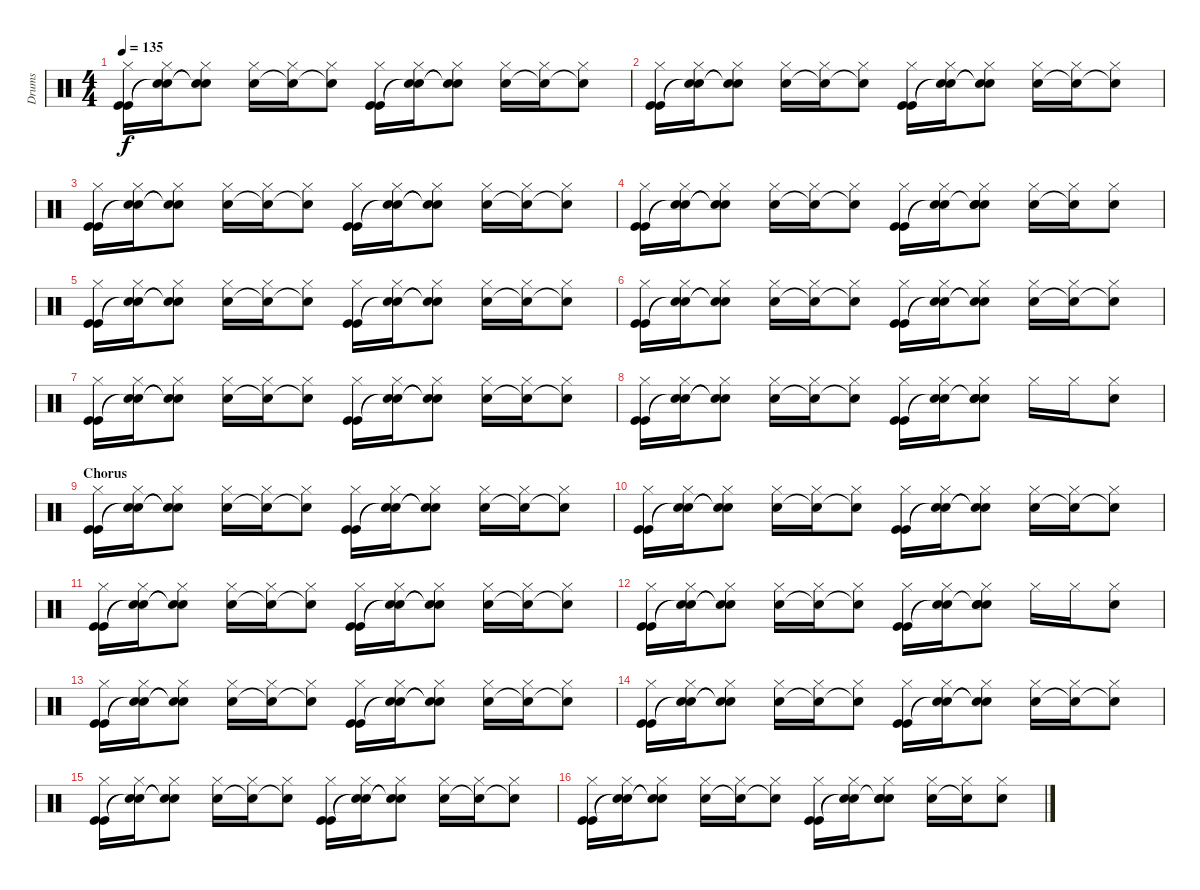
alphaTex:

\track ("Drums" "Drums") {instrument percussion}
\staff {score}
\articulation defaults
\ts (4 4)
\tempo 135
\clef neutral
\ks c
("Hi-Hat (closed)" "Kick (hit)" "Kick (hit)").16{dy f} ("Hi-Hat (closed)" "Snare (hit)"{t} "Snare (hit)"{t}).16 ("Hi-Hat (closed)" "Snare (hit)"{t} "Snare (hit)"{t}).8 ("Hi-Hat (closed)" "Snare (hit) 2").16 ("Hi-Hat (closed)" "Snare (hit)"{t}).16 ("Hi-Hat (closed)" "Snare (hit) 2"{t}).8 ("Hi-Hat (closed)" "Kick (hit)" "Kick (hit)").16 ("Hi-Hat (closed)" "Snare (hit)"{t} "Snare (hit)"{t}).16 ("Hi-Hat (closed)" "Snare (hit)"{t} "Snare (hit)"{t}).8 ("Hi-Hat (closed)" "Snare (hit) 2").16 ("Hi-Hat (closed)" "Snare (hit) 2"{t}).16 ("Hi-Hat (closed)" "Snare (hit)"{t}).8 |
("Hi-Hat (closed)" "Kick (hit)" "Kick (hit)").16 ("Hi-Hat (closed)" "Snare (hit)"{t} "Snare (hit)"{t}).16 ("Hi-Hat (closed)" "Snare (hit)"{t} "Snare (hit)"{t}).8 ("Hi-Hat (closed)" "Snare (hit) 2").16 ("Hi-Hat (closed)" "Snare (hit)"{t}).16 ("Hi-Hat (closed)" "Snare (hit) 2"{t}).8 ("Hi-Hat (closed)" "Kick (hit)" "Kick (hit)").16 ("Hi-Hat (closed)" "Snare (hit)"{t} "Snare (hit)"{t}).16 ("Hi-Hat (closed)" "Snare (hit)"{t} "Snare (hit)"{t}).8 ("Hi-Hat (closed)" "Snare (hit) 2").16 ("Hi-Hat (closed)" "Snare (hit) 2"{t}).16 ("Hi-Hat (closed)" "Snare (hit)"{t}).8 |
("Hi-Hat (closed)" "Kick (hit)" "Kick (hit)").16 ("Hi-Hat (closed)" "Snare (hit)"{t} "Snare (hit)"{t}).16 ("Hi-Hat (closed)" "Snare (hit)"{t} "Snare (hit)"{t}).8 ("Hi-Hat (closed)" "Snare (hit) 2").16 ("Hi-Hat (closed)" "Snare (hit)"{t}).16 ("Hi-Hat (closed)" "Snare (hit) 2"{t}).8 ("Hi-Hat (closed)" "Kick (hit)" "Kick (hit)").16 ("Hi-Hat (closed)" "Snare (hit)"{t} "Snare (hit)"{t}).16 ("Hi-Hat (closed)" "Snare (hit)"{t} "Snare (hit)"{t}).8 ("Hi-Hat (closed)" "Snare (hit) 2").16 ("Hi-Hat (closed)" "Snare (hit) 2"{t}).16 ("Hi-Hat (closed)" "Snare (hit)"{t}).8 |
("Hi-Hat (closed)" "Kick (hit)" "Kick (hit)").16 ("Hi-Hat (closed)" "Snare (hit)"{t} "Snare (hit)"{t}).16 ("Hi-Hat (closed)" "Snare (hit)"{t} "Snare (hit)"{t}).8 ("Hi-Hat (closed)" "Snare (hit) 2").16 ("Hi-Hat (closed)" "Snare (hit)"{t}).16 ("Hi-Hat (closed)" "Snare (hit) 2"{t}).8 ("Hi-Hat (closed)" "Kick (hit)" "Kick (hit)").16 ("Hi-Hat (closed)" "Snare (hit)"{t} "Snare (hit)"{t}).16 ("Hi-Hat (closed)" "Snare (hit) 2" "Snare (hit)"{t} "Snare (hit)").8 ("Hi-Hat (closed)" "Snare (hit) 2").16 ("Hi-Hat (closed)" "Snare (hit) 2"{t}).16 ("Hi-Hat (closed)" "Snare (hit) 2").8 |
("Hi-Hat (closed)" "Kick (hit)" "Kick (hit)").16 ("Hi-Hat (closed)" "Snare (hit)"{t} "Snare (hit)"{t}).16 ("Hi-Hat (closed)" "Snare (hit)"{t} "Snare (hit)"{t}).8 ("Hi-Hat (closed)" "Snare (hit) 2").16 ("Hi-Hat (closed)" "Snare (hit)"{t}).16 ("Hi-Hat (closed)" "Snare (hit) 2"{t}).8 ("Hi-Hat (closed)" "Kick (hit)" "Kick (hit)").16 ("Hi-Hat (closed)" "Snare (hit)"{t} "Snare (hit)"{t}).16 ("Hi-Hat (closed)" "Snare (hit)"{t} "Snare (hit)"{t}).8 ("Hi-Hat (closed)" "Snare (hit) 2").16 ("Hi-Hat (closed)" "Snare (hit) 2"{t}).16 ("Hi-Hat (closed)" "Snare (hit)"{t}).8 |
("Hi-Hat (closed)" "Kick (hit)" "Kick (hit)").16 ("Hi-Hat (closed)" "Snare (hit)"{t} "Snare (hit)"{t}).16 ("Hi-Hat (closed)" "Snare (hit)"{t} "Snare (hit)"{t}).8 ("Hi-Hat (closed)" "Snare (hit) 2").16 ("Hi-Hat (closed)" "Snare (hit)"{t}).16 ("Hi-Hat (closed)" "Snare (hit) 2"{t}).8 ("Hi-Hat (closed)" "Kick (hit)" "Kick (hit)").16 ("Hi-Hat (closed)" "Snare (hit)"{t} "Snare (hit)"{t}).16 ("Hi-Hat (closed)" "Snare (hit)"{t} "Snare (hit)"{t}).8 ("Hi-Hat (closed)" "Snare (hit) 2").16 ("Hi-Hat (closed)" "Snare (hit) 2"{t}).16 ("Hi-Hat (closed)" "Snare (hit)"{t}).8 |
("Hi-Hat (closed)" "Kick (hit)" "Kick (hit)").16 ("Hi-Hat (closed)" "Snare (hit)"{t} "Snare (hit)"{t}).16 ("Hi-Hat (closed)" "Snare (hit)"{t} "Snare (hit)"{t}).8 ("Hi-Hat (closed)" "Snare (hit) 2").16 ("Hi-Hat (closed)" "Snare (hit)"{t}).16 ("Hi-Hat (closed)" "Snare (hit) 2"{t}).8 ("Hi-Hat (closed)" "Kick (hit)" "Kick (hit)").16 ("Hi-Hat (closed)" "Snare (hit)"{t} "Snare (hit)"{t}).16 ("Hi-Hat (closed)" "Snare (hit)"{t} "Snare (hit)"{t}).8 ("Hi-Hat (closed)" "Snare (hit) 2").16 ("Hi-Hat (closed)" "Snare (hit) 2"{t}).16 ("Hi-Hat (closed)" "Snare (hit)"{t}).8 |
("Hi-Hat (closed)" "Kick (hit)" "Kick (hit)").16 ("Hi-Hat (closed)" "Snare (hit)"{t} "Snare (hit)"{t}).16 ("Hi-Hat (closed)" "Snare (hit)"{t} "Snare (hit)"{t}).8 ("Hi-Hat (closed)" "Snare (hit) 2").16 ("Hi-Hat (closed)" "Snare (hit)"{t}).16 ("Hi-Hat (closed)" "Snare (hit) 2"{t}).8 ("Hi-Hat (closed)" "Kick (hit)" "Kick (hit)").16 ("Hi-Hat (closed)" "Snare (hit)"{t} "Snare (hit)"{t}).16 ("Hi-Hat (closed)" "Snare (hit) 2" "Snare (hit)"{t} "Snare (hit)").8 "Hi-Hat (closed)".16 "Hi-Hat (closed)".16 ("Hi-Hat (closed)" "Snare (hit) 2").8 |
\section ("" "Chorus")
("Hi-Hat (closed)" "Kick (hit)" "Kick (hit)").16 ("Hi-Hat (closed)" "Snare (hit)"{t} "Snare (hit)"{t}).16 ("Hi-Hat (closed)" "Snare (hit)"{t} "Snare (hit)"{t}).8 ("Hi-Hat (closed)" "Snare (hit) 2").16 ("Hi-Hat (closed)" "Snare (hit)"{t}).16 ("Hi-Hat (closed)" "Snare (hit) 2"{t}).8 ("Hi-Hat (closed)" "Kick (hit)" "Kick (hit)").16 ("Hi-Hat (closed)" "Snare (hit)"{t} "Snare (hit)"{t}).16 ("Hi-Hat (closed)" "Snare (hit)"{t} "Snare (hit)"{t}).8 ("Hi-Hat (closed)" "Snare (hit) 2").16 ("Hi-Hat (closed)" "Snare (hit) 2"{t}).16 ("Hi-Hat (closed)" "Snare (hit)"{t}).8 |
("Hi-Hat (closed)" "Kick (hit)" "Kick (hit)").16 ("Hi-Hat (closed)" "Snare (hit)"{t} "Snare (hit)"{t}).16 ("Hi-Hat (closed)" "Snare (hit)"{t} "Snare (hit)"{t}).8 ("Hi-Hat (closed)" "Snare (hit) 2").16 ("Hi-Hat (closed)" "Snare (hit)"{t}).16 ("Hi-Hat (closed)" "Snare (hit) 2"{t}).8 ("Hi-Hat (closed)" "Kick (hit)" "Kick (hit)").16 ("Hi-Hat (closed)" "Snare (hit)"{t} "Snare (hit)"{t}).16 ("Hi-Hat (closed)" "Snare (hit)"{t} "Snare (hit)"{t}).8 ("Hi-Hat (closed)" "Snare (hit) 2").16 ("Hi-Hat (closed)" "Snare (hit) 2"{t}).16 ("Hi-Hat (closed)" "Snare (hit)"{t}).8 |
("Hi-Hat (closed)" "Kick (hit)" "Kick (hit)").16 ("Hi-Hat (closed)" "Snare (hit)"{t} "Snare (hit)"{t}).16 ("Hi-Hat (closed)" "Snare (hit)"{t} "Snare (hit)"{t}).8 ("Hi-Hat (closed)" "Snare (hit) 2").16 ("Hi-Hat (closed)" "Snare (hit)"{t}).16 ("Hi-Hat (closed)" "Snare (hit) 2"{t}).8 ("Hi-Hat (closed)" "Kick (hit)" "Kick (hit)").16 ("Hi-Hat (closed)" "Snare (hit)"{t} "Snare (hit)"{t}).16 ("Hi-Hat (closed)" "Snare (hit)"{t} "Snare (hit)"{t}).8 ("Hi-Hat (closed)" "Snare (hit) 2").16 ("Hi-Hat (closed)" "Snare (hit) 2"{t}).16 ("Hi-Hat (closed)" "Snare (hit)"{t}).8 |
("Hi-Hat (closed)" "Kick (hit)" "Kick (hit)").16 ("Hi-Hat (closed)" "Snare (hit)"{t} "Snare (hit)"{t}).16 ("Hi-Hat (closed)" "Snare (hit)"{t} "Snare (hit)"{t}).8 ("Hi-Hat (closed)" "Snare (hit) 2").16 ("Hi-Hat (closed)" "Snare (hit)"{t}).16 ("Hi-Hat (closed)" "Snare (hit) 2"{t}).8 ("Hi-Hat (closed)" "Kick (hit)" "Kick (hit)").16 ("Hi-Hat (closed)" "Snare (hit)"{t} "Snare (hit)"{t}).16 ("Hi-Hat (closed)" "Snare (hit) 2" "Snare (hit)"{t} "Snare (hit)").8 "Hi-Hat (closed)".16 "Hi-Hat (closed)".16 ("Hi-Hat (closed)" "Snare (hit) 2").8 |
("Hi-Hat (closed)" "Kick (hit)" "Kick (hit)").16 ("Hi-Hat (closed)" "Snare (hit)"{t} "Snare (hit)"{t}).16 ("Hi-Hat (closed)" "Snare (hit)"{t} "Snare (hit)"{t}).8 ("Hi-Hat (closed)" "Snare (hit) 2").16 ("Hi-Hat (closed)" "Snare (hit)"{t}).16 ("Hi-Hat (closed)" "Snare (hit) 2"{t}).8 ("Hi-Hat (closed)" "Kick (hit)" "Kick (hit)").16 ("Hi-Hat (closed)" "Snare (hit)"{t} "Snare (hit)"{t}).16 ("Hi-Hat (closed)" "Snare (hit)"{t} "Snare (hit)"{t}).8 ("Hi-Hat (closed)" "Snare (hit) 2").16 ("Hi-Hat (closed)" "Snare (hit) 2"{t}).16 ("Hi-Hat (closed)" "Snare (hit)"{t}).8 |
("Hi-Hat (closed)" "Kick (hit)" "Kick (hit)").16 ("Hi-Hat (closed)" "Snare (hit)"{t} "Snare (hit)"{t}).16 ("Hi-Hat (closed)" "Snare (hit)"{t} "Snare (hit)"{t}).8 ("Hi-Hat (closed)" "Snare (hit) 2").16 ("Hi-Hat (closed)" "Snare (hit)"{t}).16 ("Hi-Hat (closed)" "Snare (hit) 2"{t}).8 ("Hi-Hat (closed)" "Kick (hit)" "Kick (hit)").16 ("Hi-Hat (closed)" "Snare (hit)"{t} "Snare (hit)"{t}).16 ("Hi-Hat (closed)" "Snare (hit)"{t} "Snare (hit)"{t}).8 ("Hi-Hat (closed)" "Snare (hit) 2").16 ("Hi-Hat (closed)" "Snare (hit) 2"{t}).16 ("Hi-Hat (closed)" "Snare (hit)"{t}).8 |
("Hi-Hat (closed)" "Kick (hit)" "Kick (hit)").16 ("Hi-Hat (closed)" "Snare (hit)"{t} "Snare (hit)"{t}).16 ("Hi-Hat (closed)" "Snare (hit)"{t} "Snare (hit)"{t}).8 ("Hi-Hat (closed)" "Snare (hit) 2").16 ("Hi-Hat (closed)" "Snare (hit)"{t}).16 ("Hi-Hat (closed)" "Snare (hit) 2"{t}).8 ("Hi-Hat (closed)" "Kick (hit)" "Kick (hit)").16 ("Hi-Hat (closed)" "Snare (hit)"{t} "Snare (hit)"{t}).16 ("Hi-Hat (closed)" "Snare (hit)"{t} "Snare (hit)"{t}).8 ("Hi-Hat (closed)" "Snare (hit) 2").16 ("Hi-Hat (closed)" "Snare (hit) 2"{t}).16 ("Hi-Hat (closed)" "Snare (hit)"{t}).8 |
("Hi-Hat (closed)" "Kick (hit)" "Kick (hit)").16 ("Hi-Hat (closed)" "Snare (hit)"{t} "Snare (hit)"{t}).16 ("Hi-Hat (closed)" "Snare (hit)"{t} "Snare (hit)"{t}).8 ("Hi-Hat (closed)" "Snare (hit) 2").16 ("Hi-Hat (closed)" "Snare (hit)"{t}).16 ("Hi-Hat (closed)" "Snare (hit) 2"{t}).8 ("Hi-Hat (closed)" "Kick (hit)" "Kick (hit)").16 ("Hi-Hat (closed)" "Snare (hit)"{t} "Snare (hit)"{t}).16 ("Hi-Hat (closed)" "Snare (hit) 2" "Snare (hit)"{t} "Snare (hit)").8 ("Hi-Hat (closed)" "Snare (hit) 2").16 ("Hi-Hat (closed)" "Snare (hit) 2"{t}).16 ("Hi-Hat (closed)" "Snare (hit) 2").8
